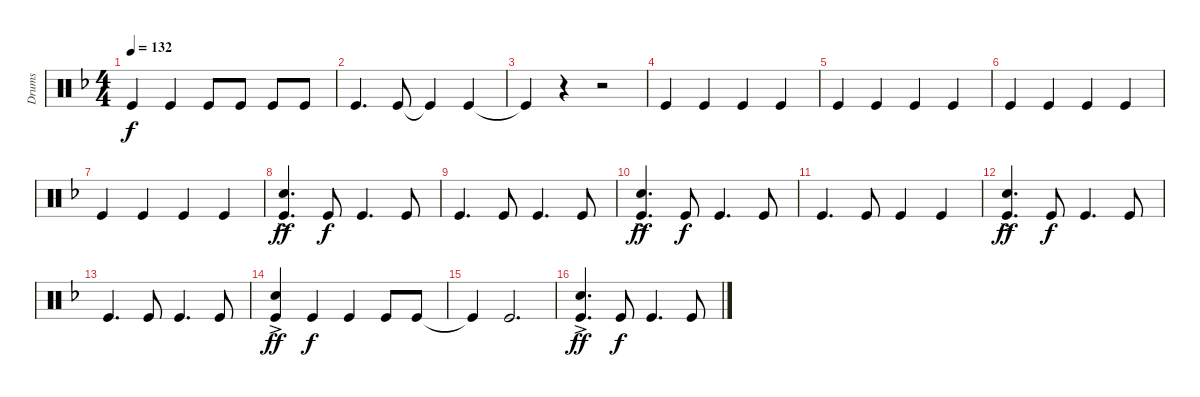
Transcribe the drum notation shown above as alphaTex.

\track ("Drums" "Drums") {instrument percussion}
\staff {score}
\articulation defaults
\ts (4 4)
\tempo 132
\clef neutral
\ks f "Kick (hit)"{t}.4{dy f} "Kick (hit)".4 "Kick (hit)".8 "Kick (hit)".8 "Kick (hit)".8 "Kick (hit)".8
|
"Kick (hit)".4{d} "Kick (hit)".8 "Kick (hit)"{t}.4 "Kick (hit)".4 |
"Kick (hit)"{t}.4 r.4 r.2 |
"Kick (hit)".4 "Kick (hit)".4 "Kick (hit)".4 "Kick (hit)".4 |
"Kick (hit)".4 "Kick (hit)".4 "Kick (hit)".4 "Kick (hit)".4 |
"Kick (hit)".4 "Kick (hit)".4 "Kick (hit)".4 "Kick (hit)".4 |
"Kick (hit)".4 "Kick (hit)".4 "Kick (hit)".4 "Kick (hit)".4 |
("Electric Snare (hit)"{ac} "Kick (hit)"{ac}).4{d dy ff} "Kick (hit)".8{dy f} "Kick (hit)".4{d} "Kick (hit)".8 |
"Kick (hit)".4{d} "Kick (hit)".8 "Kick (hit)".4{d} "Kick (hit)".8 |
("Electric Snare (hit)"{ac} "Kick (hit)"{ac}).4{d dy ff} "Kick (hit)".8{dy f} "Kick (hit)".4{d} "Kick (hit)".8 |
"Kick (hit)".4{d} "Kick (hit)".8 "Kick (hit)".4 "Kick (hit)".4 |
("Electric Snare (hit)"{ac} "Kick (hit)"{ac}).4{d dy ff} "Kick (hit)".8{dy f} "Kick (hit)".4{d} "Kick (hit)".8 |
"Kick (hit)".4{d} "Kick (hit)".8 "Kick (hit)".4{d} "Kick (hit)".8 |
("Electric Snare (hit)"{ac} "Kick (hit)"{ac}).4{dy ff} "Kick (hit)".4{dy f} "Kick (hit)".4 "Kick (hit)".8 "Kick (hit)".8 |
"Kick (hit)"{t}.4 "Kick (hit)".2{d} |
("Electric Snare (hit)"{ac} "Kick (hit)"{ac}).4{d dy ff} "Kick (hit)".8{dy f} "Kick (hit)".4{d} "Kick (hit)".8
